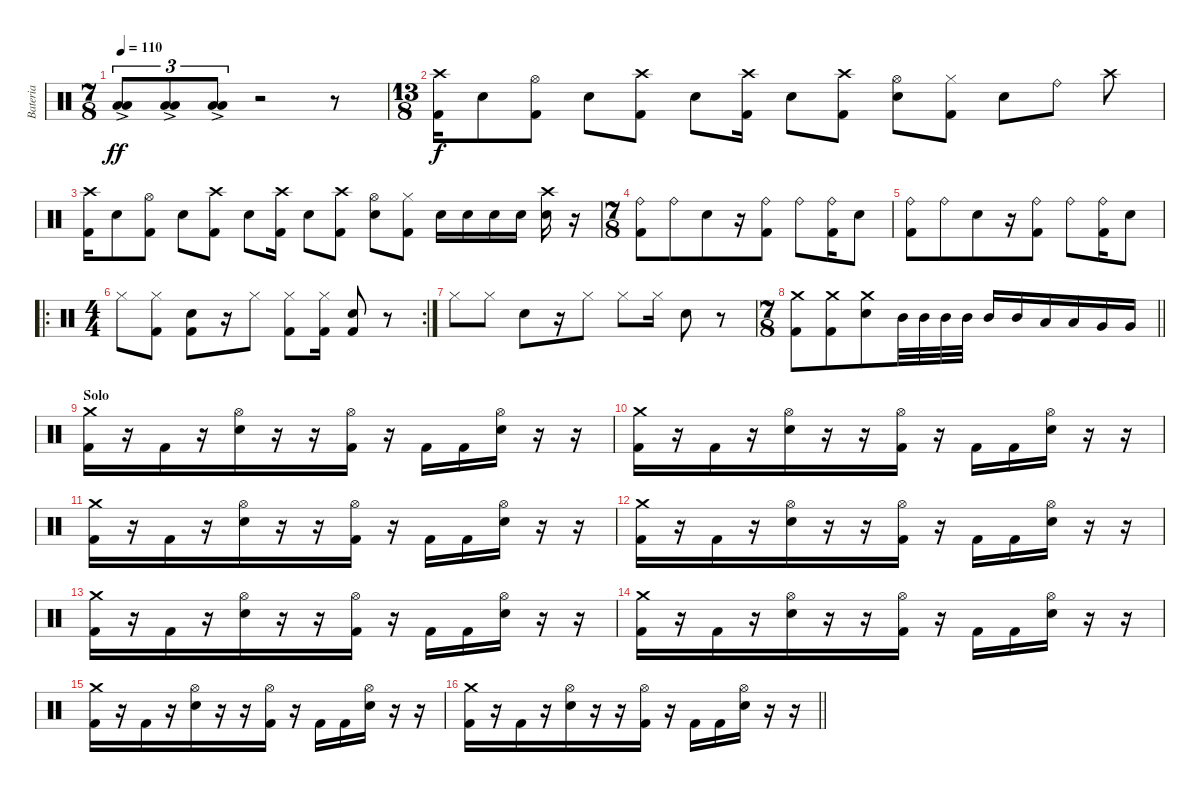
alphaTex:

\track ("Bateria " "Bateria ") {instrument percussion}
\staff {score}
\articulation defaults
\ts (7 8)
\tempo 110
\clef neutral
\ks c
("Low Tom (hit)"{ac} "Low Floor Tom (hit)").8{tu (3 2) dy ff} ("Low Tom (hit)"{ac} "Low Floor Tom (hit)").8{tu (3 2)} ("Low Tom (hit)"{ac} "Low Floor Tom (hit)").8{tu (3 2)} r.2 r.8 |
\ts (13 8)
("Crash high (hit)" "Kick (hit) 2").16{dy f} "Electric Snare (hit)".8 ("Hi-Hat (open)" "Kick (hit) 2").8 "Electric Snare (hit)".8 ("Crash high (hit)" "Kick (hit) 2").8 "Electric Snare (hit)".8 ("Crash high (hit)" "Kick (hit) 2").16 "Electric Snare (hit)".8 ("Crash high (hit)" "Kick (hit) 2").8 ("Hi-Hat (open)" "Electric Snare (hit)").8 ("Hi-Hat (closed)" "Kick (hit) 2").8 "Electric Snare (hit)".8 "Ride (bell)".8 "Crash high (hit)".8 |
("Crash high (hit)" "Kick (hit) 2").16 "Electric Snare (hit)".8 ("Hi-Hat (open)" "Kick (hit) 2").8 "Electric Snare (hit)".8 ("Crash high (hit)" "Kick (hit) 2").8 "Electric Snare (hit)".8 ("Crash high (hit)" "Kick (hit) 2").16 "Electric Snare (hit)".8 ("Crash high (hit)" "Kick (hit) 2").8 ("Hi-Hat (open)" "Electric Snare (hit)").8 ("Hi-Hat (closed)" "Kick (hit) 2").8 "Electric Snare (hit)".16 "Electric Snare (hit)".16 "Electric Snare (hit)".16 "Electric Snare (hit)".16 ("Crash high (hit)" "Electric Snare (hit)").16 r.16 |
\ts (7 8)
("Ride (bell)" "Kick (hit) 2").8 "Ride (bell)".8 "Electric Snare (hit)".8 r.16 ("Ride (bell)" "Kick (hit) 2").8 "Ride (bell)".8 ("Ride (bell)" "Kick (hit) 2").16 "Electric Snare (hit)".8 |
("Ride (bell)" "Kick (hit) 2").8 "Ride (bell)".8 "Electric Snare (hit)".8 r.16 ("Ride (bell)" "Kick (hit) 2").8 "Ride (bell)".8 ("Ride (bell)" "Kick (hit) 2").16 "Electric Snare (hit)".8 |
\ro
\rc 2
\ts (4 4)
"Hi-Hat (closed)".8 ("Hi-Hat (closed)" "Kick (hit) 2").8 ("Electric Snare (hit)" "Kick (hit) 2").8 r.16 "Hi-Hat (closed)".8 ("Hi-Hat (closed)" "Kick (hit) 2").8 ("Hi-Hat (closed)" "Kick (hit) 2").16 ("Electric Snare (hit)" "Kick (hit) 2").8 r.8 |
"Hi-Hat (closed)".8 "Hi-Hat (closed)".8 "Electric Snare (hit)".8 r.16 "Hi-Hat (closed)".8 "Hi-Hat (closed)".8 "Hi-Hat (closed)".16 "Electric Snare (hit)".8 r.8 |
\ts (7 8)
\barLineRight lightlight
("Crash medium (hit)" "Kick (hit) 2").8 ("Crash medium (hit)" "Kick (hit) 2").8 ("Crash medium (hit)" "Electric Snare (hit)").8 "Mid Tom (hit)".32 "Mid Tom (hit)".32 "Mid Tom (hit)".32 "Mid Tom (hit)".32 "Mid Tom (hit)".16 "Mid Tom (hit)".16 "Low Tom (hit)".16 "Low Tom (hit)".16 "Very Low Tom (hit)".16 "Very Low Tom (hit)".16 |
\section ("" "Solo ")
("Crash medium (hit)" "Kick (hit) 2").16 r.16 "Kick (hit) 2".16 r.16 ("Hi-Hat (open)" "Electric Snare (hit)").16 r.16 r.16 ("Hi-Hat (open)" "Kick (hit) 2").16 r.16 "Kick (hit) 2".16 "Kick (hit) 2".16 ("Hi-Hat (open)" "Electric Snare (hit)").16 r.16 r.16 |
("Crash medium (hit)" "Kick (hit) 2").16 r.16 "Kick (hit) 2".16 r.16 ("Hi-Hat (open)" "Electric Snare (hit)").16 r.16 r.16 ("Hi-Hat (open)" "Kick (hit) 2").16 r.16 "Kick (hit) 2".16 "Kick (hit) 2".16 ("Hi-Hat (open)" "Electric Snare (hit)").16 r.16 r.16 |
("Crash medium (hit)" "Kick (hit) 2").16 r.16 "Kick (hit) 2".16 r.16 ("Hi-Hat (open)" "Electric Snare (hit)").16 r.16 r.16 ("Hi-Hat (open)" "Kick (hit) 2").16 r.16 "Kick (hit) 2".16 "Kick (hit) 2".16 ("Hi-Hat (open)" "Electric Snare (hit)").16 r.16 r.16 |
("Crash medium (hit)" "Kick (hit) 2").16 r.16 "Kick (hit) 2".16 r.16 ("Hi-Hat (open)" "Electric Snare (hit)").16 r.16 r.16 ("Hi-Hat (open)" "Kick (hit) 2").16 r.16 "Kick (hit) 2".16 "Kick (hit) 2".16 ("Hi-Hat (open)" "Electric Snare (hit)").16 r.16 r.16 |
("Crash medium (hit)" "Kick (hit) 2").16 r.16 "Kick (hit) 2".16 r.16 ("Hi-Hat (open)" "Electric Snare (hit)").16 r.16 r.16 ("Hi-Hat (open)" "Kick (hit) 2").16 r.16 "Kick (hit) 2".16 "Kick (hit) 2".16 ("Hi-Hat (open)" "Electric Snare (hit)").16 r.16 r.16 |
("Crash medium (hit)" "Kick (hit) 2").16 r.16 "Kick (hit) 2".16 r.16 ("Hi-Hat (open)" "Electric Snare (hit)").16 r.16 r.16 ("Hi-Hat (open)" "Kick (hit) 2").16 r.16 "Kick (hit) 2".16 "Kick (hit) 2".16 ("Hi-Hat (open)" "Electric Snare (hit)").16 r.16 r.16 |
("Crash medium (hit)" "Kick (hit) 2").16 r.16 "Kick (hit) 2".16 r.16 ("Hi-Hat (open)" "Electric Snare (hit)").16 r.16 r.16 ("Hi-Hat (open)" "Kick (hit) 2").16 r.16 "Kick (hit) 2".16 "Kick (hit) 2".16 ("Hi-Hat (open)" "Electric Snare (hit)").16 r.16 r.16 |
\barLineRight lightlight
("Crash medium (hit)" "Kick (hit) 2").16 r.16 "Kick (hit) 2".16 r.16 ("Hi-Hat (open)" "Electric Snare (hit)").16 r.16 r.16 ("Hi-Hat (open)" "Kick (hit) 2").16 r.16 "Kick (hit) 2".16 "Kick (hit) 2".16 ("Hi-Hat (open)" "Electric Snare (hit)").16 r.16 r.16
